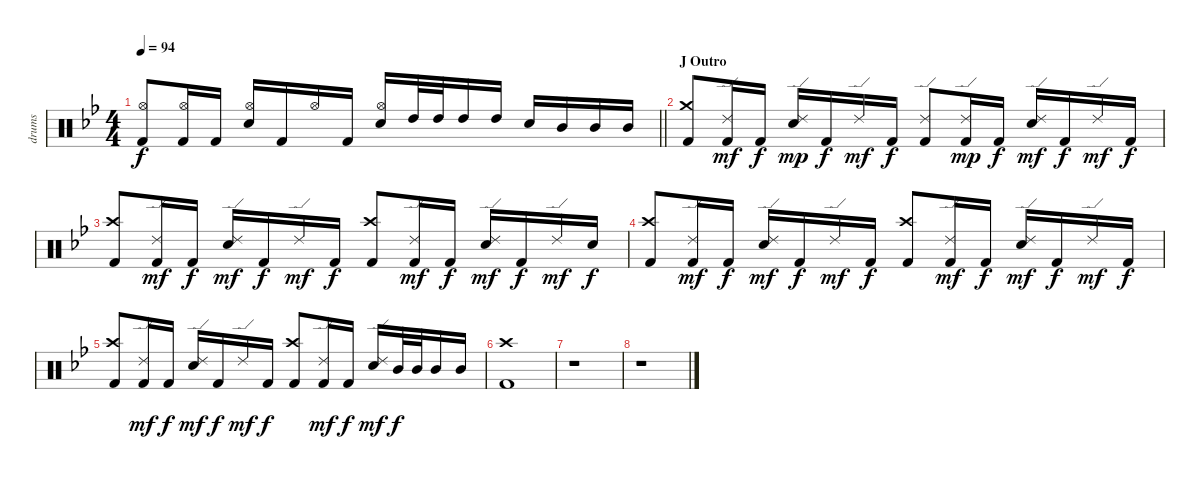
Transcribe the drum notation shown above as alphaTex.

\track ("drums" "drums") {instrument percussion}
\staff {score}
\articulation defaults
\ts (4 4)
\tempo 94
\clef neutral
\barLineRight lightlight
\ks bb
("Hi-Hat (open)" "Kick (hit) 2").8{dy f beam Up} ("Hi-Hat (open)" "Kick (hit) 2").16{beam Up} "Kick (hit) 2".16{beam Up} ("Snare (hit) 2" "Hi-Hat (open)").16{beam Up} "Kick (hit) 2".16{beam Up} "Hi-Hat (open)".16{beam Up} "Kick (hit) 2".16{beam Up} ("Snare (hit) 2" "Hi-Hat (open)").16{beam Up} "High Tom (hit)".32{beam Up} "High Tom (hit)".32{beam Up} "High Tom (hit)".16{beam Up} "High Tom (hit)".16{beam Up} "Snare (hit) 2".16{beam Up} "Mid Tom (hit)".16{beam Up} "Mid Tom (hit)".16{beam Up} "Mid Tom (hit)".16{beam Up} |
\section ("" "J Outro")
("Crash medium (hit)" "Kick (hit) 2").8{beam Up} ("Ride (edge) 2" "Kick (hit) 2").16{dy mf beam Up} "Kick (hit) 2".16{dy f beam Up} ("Ride (edge) 2" "Snare (hit) 2").16{dy mp beam Up} "Kick (hit) 2".16{dy f beam Up} "Ride (edge) 2".16{dy mf beam Up} "Kick (hit) 2".16{dy f beam Up} ("Ride (edge) 2" "Kick (hit) 2").8{beam Up} ("Ride (edge) 2" "Kick (hit) 2").16{dy mp beam Up} "Kick (hit) 2".16{dy f beam Up} ("Ride (edge) 2" "Snare (hit) 2").16{dy mf beam Up} "Kick (hit) 2".16{dy f beam Up} "Ride (edge) 2".16{dy mf beam Up} "Kick (hit) 2".16{dy f beam Up} |
("Crash high (hit)" "Kick (hit) 2").8{beam Up} ("Ride (edge) 2" "Kick (hit) 2").16{dy mf beam Up} "Kick (hit) 2".16{dy f beam Up} ("Ride (edge) 2" "Snare (hit) 2").16{dy mf beam Up} "Kick (hit) 2".16{dy f beam Up} "Ride (edge) 2".16{dy mf beam Up} "Kick (hit) 2".16{dy f beam Up} ("Crash high (hit)" "Kick (hit) 2").8{beam Up} ("Ride (edge) 2" "Kick (hit) 2").16{dy mf beam Up} "Kick (hit) 2".16{dy f beam Up} ("Ride (edge) 2" "Snare (hit) 2").16{dy mf beam Up} "Kick (hit) 2".16{dy f beam Up} "Ride (edge) 2".16{dy mf beam Up} "Snare (hit) 2".16{dy f beam Up} |
("Crash high (hit)" "Kick (hit) 2").8{beam Up} ("Ride (edge) 2" "Kick (hit) 2").16{dy mf beam Up} "Kick (hit) 2".16{dy f beam Up} ("Ride (edge) 2" "Snare (hit) 2").16{dy mf beam Up} "Kick (hit) 2".16{dy f beam Up} "Ride (edge) 2".16{dy mf beam Up} "Kick (hit) 2".16{dy f beam Up} ("Crash high (hit)" "Kick (hit) 2").8{beam Up} ("Ride (edge) 2" "Kick (hit) 2").16{dy mf beam Up} "Kick (hit) 2".16{dy f beam Up} ("Ride (edge) 2" "Snare (hit) 2").16{dy mf beam Up} "Kick (hit) 2".16{dy f beam Up} "Ride (edge) 2".16{dy mf beam Up} "Kick (hit) 2".16{dy f beam Up} |
("Crash high (hit)" "Kick (hit) 2").8{beam Up} ("Ride (edge) 2" "Kick (hit) 2").16{dy mf beam Up} "Kick (hit) 2".16{dy f beam Up} ("Ride (edge) 2" "Snare (hit) 2").16{dy mf beam Up} "Kick (hit) 2".16{dy f beam Up} "Ride (edge) 2".16{dy mf beam Up} "Kick (hit) 2".16{dy f beam Up} ("Crash high (hit)" "Kick (hit) 2").8{beam Up} ("Ride (edge) 2" "Kick (hit) 2").16{dy mf beam Up} "Kick (hit) 2".16{dy f beam Up} ("Ride (edge) 2" "Snare (hit) 2").16{dy mf beam Up} "Mid Tom (hit)".32{dy f beam Up} "Mid Tom (hit)".32{beam Up} "Mid Tom (hit)".16{beam Up} "Mid Tom (hit)".16{beam Up} |
("Crash high (hit)" "Kick (hit) 2").1 |
r.1 |
r.1
